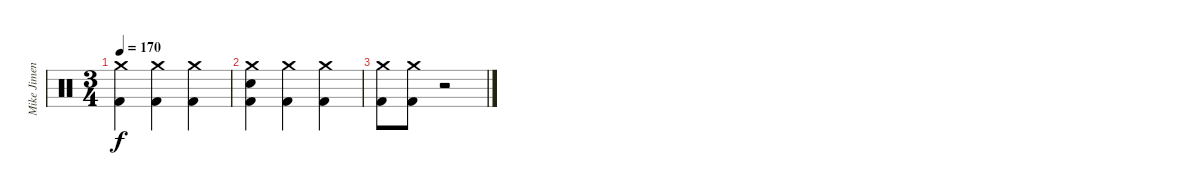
\track ("Mike Jimenez" "Mike Jimen") {instrument percussion}
\staff {score}
\articulation defaults
\ts (3 4)
\tempo 170
\clef neutral
\ks c
("Crash medium (hit)" "Kick (hit) 2").4{dy f} ("Crash medium (hit)" "Kick (hit) 2").4 ("Crash medium (hit)" "Kick (hit) 2").4 |
("Crash medium (hit)" "Electric Snare (hit)" "Kick (hit) 2").4 ("Crash medium (hit)" "Kick (hit) 2").4 ("Crash medium (hit)" "Kick (hit) 2").4 |
("Crash medium (hit)" "Kick (hit) 2").8 ("Crash medium (hit)" "Kick (hit) 2").8 r.2
